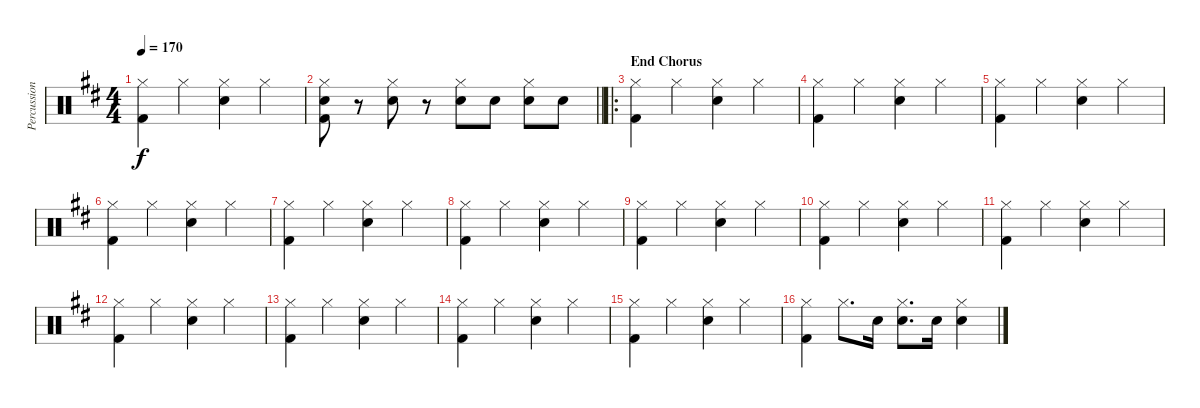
\track ("Percussion" "Percussion") {instrument percussion}
\staff {score}
\articulation defaults
\ts (4 4)
\tempo 170
\clef neutral
\ks d
("Hi-Hat (closed)" "Kick (hit) 2").4{dy f} "Hi-Hat (closed)".4 ("Hi-Hat (closed)" "Snare (hit) 2").4 "Hi-Hat (closed)".4 |
\barLineRight lightlight
("Hi-Hat (closed)" "Snare (hit) 2" "Kick (hit) 2").8 r.8 ("Hi-Hat (closed)" "Snare (hit) 2").8 r.8 ("Hi-Hat (closed)" "Snare (hit) 2").8 "Snare (hit) 2".8 ("Hi-Hat (closed)" "Snare (hit) 2").8 "Snare (hit) 2".8 |
\ro
\section ("" "End Chorus")
("Hi-Hat (closed)" "Kick (hit) 2").4 "Hi-Hat (closed)".4 ("Hi-Hat (closed)" "Snare (hit) 2").4 "Hi-Hat (closed)".4 |
("Hi-Hat (closed)" "Kick (hit) 2").4 "Hi-Hat (closed)".4 ("Hi-Hat (closed)" "Snare (hit) 2").4 "Hi-Hat (closed)".4 |
("Hi-Hat (closed)" "Kick (hit) 2").4 "Hi-Hat (closed)".4 ("Hi-Hat (closed)" "Snare (hit) 2").4 "Hi-Hat (closed)".4 |
("Hi-Hat (closed)" "Kick (hit) 2").4 "Hi-Hat (closed)".4 ("Hi-Hat (closed)" "Snare (hit) 2").4 "Hi-Hat (closed)".4 |
("Hi-Hat (closed)" "Kick (hit) 2").4 "Hi-Hat (closed)".4 ("Hi-Hat (closed)" "Snare (hit) 2").4 "Hi-Hat (closed)".4 |
("Hi-Hat (closed)" "Kick (hit) 2").4 "Hi-Hat (closed)".4 ("Hi-Hat (closed)" "Snare (hit) 2").4 "Hi-Hat (closed)".4 |
("Hi-Hat (closed)" "Kick (hit) 2").4 "Hi-Hat (closed)".4 ("Hi-Hat (closed)" "Snare (hit) 2").4 "Hi-Hat (closed)".4 |
("Hi-Hat (closed)" "Kick (hit) 2").4 "Hi-Hat (closed)".4 ("Hi-Hat (closed)" "Snare (hit) 2").4 "Hi-Hat (closed)".4 |
("Hi-Hat (closed)" "Kick (hit) 2").4 "Hi-Hat (closed)".4 ("Hi-Hat (closed)" "Snare (hit) 2").4 "Hi-Hat (closed)".4 |
("Hi-Hat (closed)" "Kick (hit) 2").4 "Hi-Hat (closed)".4 ("Hi-Hat (closed)" "Snare (hit) 2").4 "Hi-Hat (closed)".4 |
("Hi-Hat (closed)" "Kick (hit) 2").4 "Hi-Hat (closed)".4 ("Hi-Hat (closed)" "Snare (hit) 2").4 "Hi-Hat (closed)".4 |
("Hi-Hat (closed)" "Kick (hit) 2").4 "Hi-Hat (closed)".4 ("Hi-Hat (closed)" "Snare (hit) 2").4 "Hi-Hat (closed)".4 |
("Hi-Hat (closed)" "Kick (hit) 2").4 "Hi-Hat (closed)".4 ("Hi-Hat (closed)" "Snare (hit) 2").4 "Hi-Hat (closed)".4 |
("Hi-Hat (closed)" "Kick (hit) 2").4 "Hi-Hat (closed)".8{d} "Snare (hit) 2".16 ("Hi-Hat (closed)" "Snare (hit) 2").8{d} "Snare (hit) 2".16 ("Hi-Hat (closed)" "Snare (hit) 2").4
